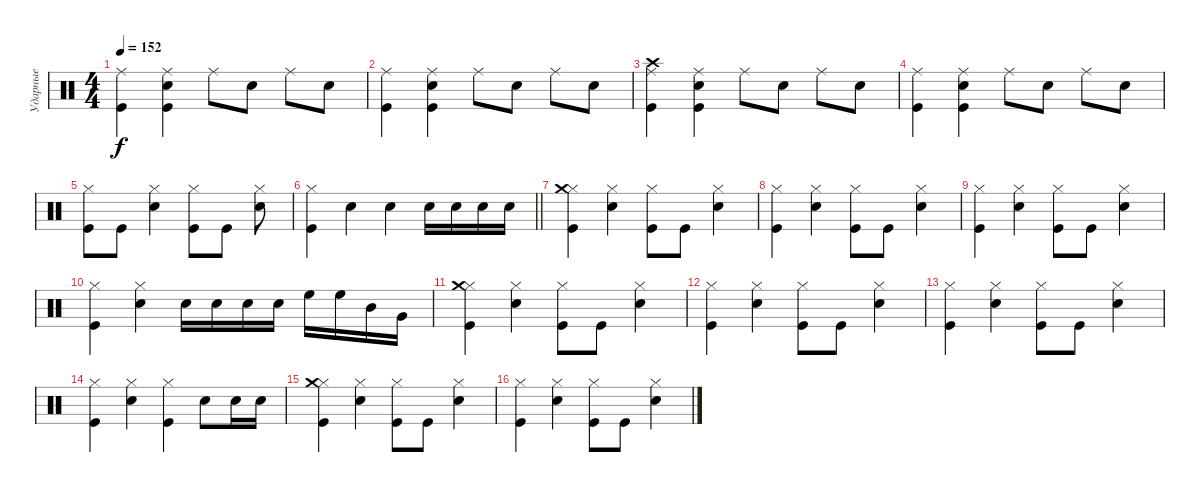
\track ("Ударные" "Ударные") {instrument percussion}
\staff {score}
\articulation defaults
\ts (4 4)
\tempo 152
\clef neutral
\ks c
("Ride (middle)" "Kick (hit)").4{dy f} ("Kick (hit)" "Ride (middle)" "Snare (hit) 2").4 "Ride (middle)".8 "Snare (hit) 2".8 "Ride (middle)".8 "Snare (hit) 2".8 |
("Ride (middle)" "Kick (hit)").4 ("Kick (hit)" "Ride (middle)" "Snare (hit) 2").4 "Ride (middle)".8 "Snare (hit) 2".8 "Ride (middle)".8 "Snare (hit) 2".8 |
("Crash high (hit)" "Ride (middle)" "Kick (hit)").4 ("Kick (hit)" "Ride (middle)" "Snare (hit) 2").4 "Ride (middle)".8 "Snare (hit) 2".8 "Ride (middle)".8 "Snare (hit) 2".8 |
("Ride (middle)" "Kick (hit)").4 ("Kick (hit)" "Ride (middle)" "Snare (hit) 2").4 "Ride (middle)".8 "Snare (hit) 2".8 "Ride (middle)".8 "Snare (hit) 2".8 |
("Kick (hit)" "Hi-Hat (closed)").8 "Kick (hit)".8 ("Snare (hit) 2" "Hi-Hat (closed)").4 ("Hi-Hat (closed)" "Kick (hit)").8 "Kick (hit)".8 ("Snare (hit) 2" "Hi-Hat (closed)").8 |
\barLineRight lightlight
("Kick (hit)" "Hi-Hat (closed)").4 "Snare (hit) 2".4 "Snare (hit) 2".4 "Snare (hit) 2".16 "Snare (hit) 2".16 "Snare (hit) 2".16 "Snare (hit) 2".16 |
("Hi-Hat (closed)" "Crash medium (hit)" "Kick (hit)").4 ("Hi-Hat (closed)" "Snare (hit) 2").4 ("Kick (hit)" "Hi-Hat (closed)").8 "Kick (hit)".8 ("Snare (hit) 2" "Hi-Hat (closed)").4 |
("Hi-Hat (closed)" "Kick (hit)").4 ("Hi-Hat (closed)" "Snare (hit) 2").4 ("Kick (hit)" "Hi-Hat (closed)").8 "Kick (hit)".8 ("Snare (hit) 2" "Hi-Hat (closed)").4 |
("Hi-Hat (closed)" "Kick (hit)").4 ("Hi-Hat (closed)" "Snare (hit) 2").4 ("Kick (hit)" "Hi-Hat (closed)").8 "Kick (hit)".8 ("Snare (hit) 2" "Hi-Hat (closed)").4 |
("Hi-Hat (closed)" "Kick (hit)").4 ("Hi-Hat (closed)" "Snare (hit) 2").4 "Snare (hit) 2".16 "Snare (hit) 2".16 "Snare (hit) 2".16 "Snare (hit) 2".16 "High Floor Tom (hit)".16 "High Floor Tom (hit)".16 "Mid Tom (hit)".16 "Very Low Tom (hit)".16 |
("Hi-Hat (closed)" "Crash medium (hit)" "Kick (hit)").4 ("Hi-Hat (closed)" "Snare (hit) 2").4 ("Kick (hit)" "Hi-Hat (closed)").8 "Kick (hit)".8 ("Snare (hit) 2" "Hi-Hat (closed)").4 |
("Hi-Hat (closed)" "Kick (hit)").4 ("Hi-Hat (closed)" "Snare (hit) 2").4 ("Kick (hit)" "Hi-Hat (closed)").8 "Kick (hit)".8 ("Snare (hit) 2" "Hi-Hat (closed)").4 |
("Hi-Hat (closed)" "Kick (hit)").4 ("Hi-Hat (closed)" "Snare (hit) 2").4 ("Kick (hit)" "Hi-Hat (closed)").8 "Kick (hit)".8 ("Snare (hit) 2" "Hi-Hat (closed)").4 |
("Hi-Hat (closed)" "Kick (hit)").4 ("Hi-Hat (closed)" "Snare (hit) 2").4 ("Kick (hit)" "Hi-Hat (closed)").4 "Snare (hit) 2".8 "Snare (hit) 2".16 "Snare (hit) 2".16 |
("Hi-Hat (closed)" "Crash medium (hit)" "Kick (hit)").4 ("Hi-Hat (closed)" "Snare (hit) 2").4 ("Kick (hit)" "Hi-Hat (closed)").8 "Kick (hit)".8 ("Snare (hit) 2" "Hi-Hat (closed)").4 |
("Hi-Hat (closed)" "Kick (hit)").4 ("Hi-Hat (closed)" "Snare (hit) 2").4 ("Kick (hit)" "Hi-Hat (closed)").8 "Kick (hit)".8 ("Snare (hit) 2" "Hi-Hat (closed)").4
